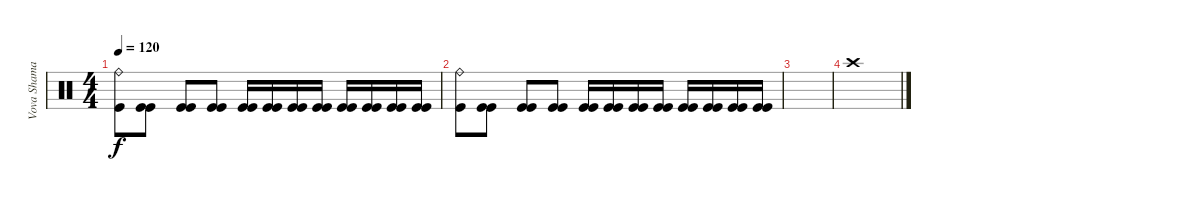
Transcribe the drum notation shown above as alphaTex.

\track ("Vova Shamay" "Vova Shama") {instrument percussion}
\staff {score}
\articulation defaults
\ts (4 4)
\tempo 120
\clef neutral
\ks c
("Kick (hit)" "Ride (bell)").8{dy f} ("Kick (hit)" "Kick (hit)").8 ("Kick (hit)" "Kick (hit)").8 ("Kick (hit)" "Kick (hit)").8 ("Kick (hit)" "Kick (hit)").16 ("Kick (hit)" "Kick (hit)").16 ("Kick (hit)" "Kick (hit)").16 ("Kick (hit)" "Kick (hit)").16 ("Kick (hit)" "Kick (hit)").16 ("Kick (hit)" "Kick (hit)").16 ("Kick (hit)" "Kick (hit)").16 ("Kick (hit)" "Kick (hit)").16 |
("Kick (hit)" "Ride (bell)").8 ("Kick (hit)" "Kick (hit)").8 ("Kick (hit)" "Kick (hit)").8 ("Kick (hit)" "Kick (hit)").8 ("Kick (hit)" "Kick (hit)").16 ("Kick (hit)" "Kick (hit)").16 ("Kick (hit)" "Kick (hit)").16 ("Kick (hit)" "Kick (hit)").16 ("Kick (hit)" "Kick (hit)").16 ("Kick (hit)" "Kick (hit)").16 ("Kick (hit)" "Kick (hit)").16 ("Kick (hit)" "Kick (hit)").16 |
|
"Crash high (hit)".1
